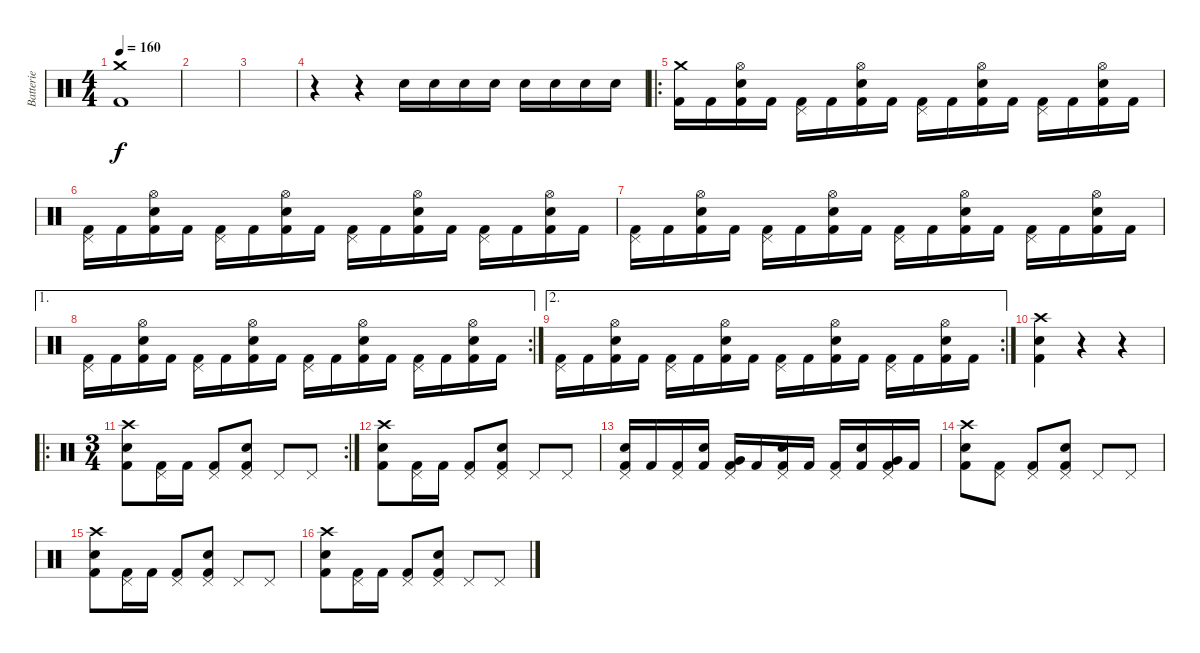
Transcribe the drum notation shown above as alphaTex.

\track ("Batterie" "Batterie") {instrument percussion}
\staff {score}
\articulation defaults
\ts (4 4)
\tempo 160
\clef neutral
\ks c
("Crash medium (hit)" "Kick (hit) 2").1{dy f} |
|
|
r.4 r.4 "Electric Snare (hit)".16 "Electric Snare (hit)".16 "Electric Snare (hit)".16 "Electric Snare (hit)".16 "Electric Snare (hit)".16 "Electric Snare (hit)".16 "Electric Snare (hit)".16 "Electric Snare (hit)".16 |
\ro
("Crash medium (hit)" "Kick (hit) 2").16 "Kick (hit) 2".16 ("Hi-Hat (open)" "Electric Snare (hit)" "Kick (hit) 2").16 "Kick (hit) 2".16 ("Pedal Hi-Hat (hit)" "Kick (hit) 2").16 "Kick (hit) 2".16 ("Hi-Hat (open)" "Electric Snare (hit)" "Kick (hit) 2").16 "Kick (hit) 2".16 ("Pedal Hi-Hat (hit)" "Kick (hit) 2").16 "Kick (hit) 2".16 ("Hi-Hat (open)" "Electric Snare (hit)" "Kick (hit) 2").16 "Kick (hit) 2".16 ("Pedal Hi-Hat (hit)" "Kick (hit) 2").16 "Kick (hit) 2".16 ("Hi-Hat (open)" "Electric Snare (hit)" "Kick (hit) 2").16 "Kick (hit) 2".16 |
("Pedal Hi-Hat (hit)" "Kick (hit) 2").16 "Kick (hit) 2".16 ("Hi-Hat (open)" "Electric Snare (hit)" "Kick (hit) 2").16 "Kick (hit) 2".16 ("Pedal Hi-Hat (hit)" "Kick (hit) 2").16 "Kick (hit) 2".16 ("Hi-Hat (open)" "Electric Snare (hit)" "Kick (hit) 2").16 "Kick (hit) 2".16 ("Pedal Hi-Hat (hit)" "Kick (hit) 2").16 "Kick (hit) 2".16 ("Hi-Hat (open)" "Electric Snare (hit)" "Kick (hit) 2").16 "Kick (hit) 2".16 ("Pedal Hi-Hat (hit)" "Kick (hit) 2").16 "Kick (hit) 2".16 ("Hi-Hat (open)" "Electric Snare (hit)" "Kick (hit) 2").16 "Kick (hit) 2".16 |
("Pedal Hi-Hat (hit)" "Kick (hit) 2").16 "Kick (hit) 2".16 ("Hi-Hat (open)" "Electric Snare (hit)" "Kick (hit) 2").16 "Kick (hit) 2".16 ("Pedal Hi-Hat (hit)" "Kick (hit) 2").16 "Kick (hit) 2".16 ("Hi-Hat (open)" "Electric Snare (hit)" "Kick (hit) 2").16 "Kick (hit) 2".16 ("Pedal Hi-Hat (hit)" "Kick (hit) 2").16 "Kick (hit) 2".16 ("Hi-Hat (open)" "Electric Snare (hit)" "Kick (hit) 2").16 "Kick (hit) 2".16 ("Pedal Hi-Hat (hit)" "Kick (hit) 2").16 "Kick (hit) 2".16 ("Hi-Hat (open)" "Electric Snare (hit)" "Kick (hit) 2").16 "Kick (hit) 2".16 |
\ae 1
\rc 2
("Pedal Hi-Hat (hit)" "Kick (hit) 2").16 "Kick (hit) 2".16 ("Hi-Hat (open)" "Electric Snare (hit)" "Kick (hit) 2").16 "Kick (hit) 2".16 ("Pedal Hi-Hat (hit)" "Kick (hit) 2").16 "Kick (hit) 2".16 ("Hi-Hat (open)" "Electric Snare (hit)" "Kick (hit) 2").16 "Kick (hit) 2".16 ("Pedal Hi-Hat (hit)" "Kick (hit) 2").16 "Kick (hit) 2".16 ("Hi-Hat (open)" "Electric Snare (hit)" "Kick (hit) 2").16 "Kick (hit) 2".16 ("Pedal Hi-Hat (hit)" "Kick (hit) 2").16 "Kick (hit) 2".16 ("Hi-Hat (open)" "Electric Snare (hit)" "Kick (hit) 2").16 "Kick (hit) 2".16 |
\ae 2
\rc 2
("Pedal Hi-Hat (hit)" "Kick (hit) 2").16 "Kick (hit) 2".16 ("Hi-Hat (open)" "Electric Snare (hit)" "Kick (hit) 2").16 "Kick (hit) 2".16 ("Pedal Hi-Hat (hit)" "Kick (hit) 2").16 "Kick (hit) 2".16 ("Hi-Hat (open)" "Electric Snare (hit)" "Kick (hit) 2").16 "Kick (hit) 2".16 ("Pedal Hi-Hat (hit)" "Kick (hit) 2").16 "Kick (hit) 2".16 ("Hi-Hat (open)" "Electric Snare (hit)" "Kick (hit) 2").16 "Kick (hit) 2".16 ("Pedal Hi-Hat (hit)" "Kick (hit) 2").16 "Kick (hit) 2".16 ("Hi-Hat (open)" "Electric Snare (hit)" "Kick (hit) 2").16 "Kick (hit) 2".16 |
("Crash high (hit)" "Electric Snare (hit)" "Kick (hit) 2").4 r.4 r.4 |
\ro
\rc 2
\ts (3 4)
("Crash high (hit)" "Electric Snare (hit)" "Kick (hit) 2").8 ("Pedal Hi-Hat (hit)" "Kick (hit) 2").16 "Kick (hit) 2".16 ("Pedal Hi-Hat (hit)" "Kick (hit) 2").8 ("Pedal Hi-Hat (hit)" "Kick (hit) 2" "Electric Snare (hit)").8 "Pedal Hi-Hat (hit)".8 "Pedal Hi-Hat (hit)".8 |
("Crash high (hit)" "Electric Snare (hit)" "Kick (hit) 2").8 ("Pedal Hi-Hat (hit)" "Kick (hit) 2").16 "Kick (hit) 2".16 ("Pedal Hi-Hat (hit)" "Kick (hit) 2").8 ("Pedal Hi-Hat (hit)" "Kick (hit) 2" "Electric Snare (hit)").8 "Pedal Hi-Hat (hit)".8 "Pedal Hi-Hat (hit)".8 |
("Pedal Hi-Hat (hit)" "Electric Snare (hit)" "Kick (hit) 2").16 "Kick (hit) 2".16 ("Pedal Hi-Hat (hit)" "Kick (hit) 2").16 ("Electric Snare (hit)" "Kick (hit) 2").16 ("Pedal Hi-Hat (hit)" "Very Low Tom (hit)" "Kick (hit) 2").16 "Kick (hit) 2".16 ("Pedal Hi-Hat (hit)" "Electric Snare (hit)" "Kick (hit) 2").16 "Kick (hit) 2".16 ("Pedal Hi-Hat (hit)" "Kick (hit) 2").16 ("Electric Snare (hit)" "Kick (hit) 2").16 ("Pedal Hi-Hat (hit)" "Very Low Tom (hit)" "Kick (hit) 2").16 "Kick (hit) 2".16 |
("Crash high (hit)" "Electric Snare (hit)" "Kick (hit) 2").8 ("Pedal Hi-Hat (hit)" "Kick (hit) 2").8 ("Pedal Hi-Hat (hit)" "Kick (hit) 2").8 ("Pedal Hi-Hat (hit)" "Kick (hit) 2" "Electric Snare (hit)").8 "Pedal Hi-Hat (hit)".8 "Pedal Hi-Hat (hit)".8 |
("Crash high (hit)" "Electric Snare (hit)" "Kick (hit) 2").8 ("Pedal Hi-Hat (hit)" "Kick (hit) 2").16 "Kick (hit) 2".16 ("Pedal Hi-Hat (hit)" "Kick (hit) 2").8 ("Pedal Hi-Hat (hit)" "Kick (hit) 2" "Electric Snare (hit)").8 "Pedal Hi-Hat (hit)".8 "Pedal Hi-Hat (hit)".8 |
("Crash high (hit)" "Electric Snare (hit)" "Kick (hit) 2").8 ("Pedal Hi-Hat (hit)" "Kick (hit) 2").16 "Kick (hit) 2".16 ("Pedal Hi-Hat (hit)" "Kick (hit) 2").8 ("Pedal Hi-Hat (hit)" "Kick (hit) 2" "Electric Snare (hit)").8 "Pedal Hi-Hat (hit)".8 "Pedal Hi-Hat (hit)".8
